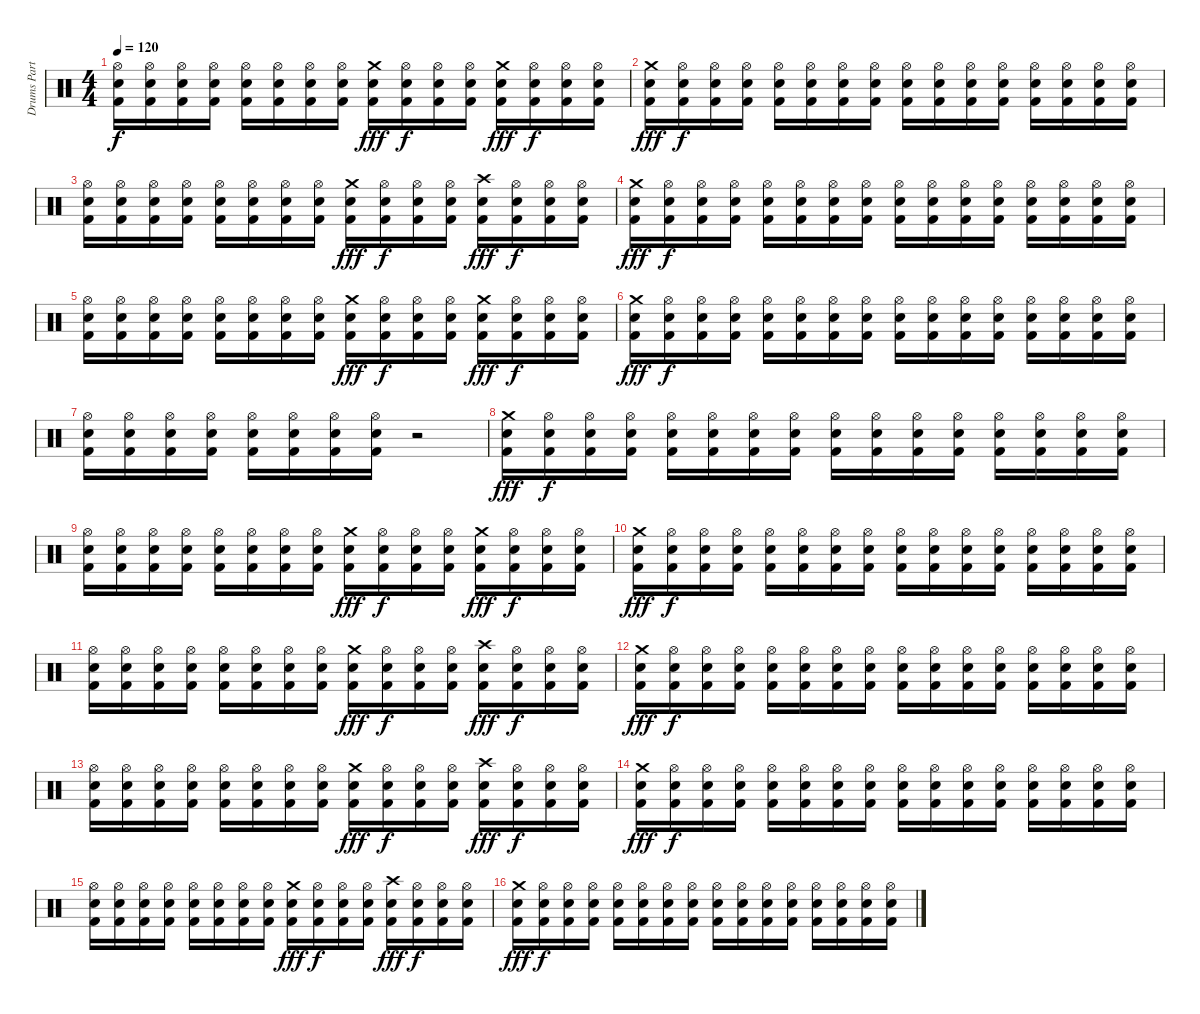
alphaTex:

\track ("Drums Part" "Drums Part") {instrument percussion}
\staff {score}
\articulation defaults
\ts (4 4)
\tempo 120
\clef neutral
\ks c
("Hi-Hat (open)" "Electric Snare (hit)" "Kick (hit) 2").16{dy f} ("Hi-Hat (open)" "Electric Snare (hit)" "Kick (hit) 2").16 ("Hi-Hat (open)" "Electric Snare (hit)" "Kick (hit) 2").16 ("Hi-Hat (open)" "Electric Snare (hit)" "Kick (hit) 2").16 ("Hi-Hat (open)" "Electric Snare (hit)" "Kick (hit) 2").16 ("Hi-Hat (open)" "Electric Snare (hit)" "Kick (hit) 2").16 ("Hi-Hat (open)" "Electric Snare (hit)" "Kick (hit) 2").16 ("Hi-Hat (open)" "Electric Snare (hit)" "Kick (hit) 2").16 ("Crash medium (hit)" "Electric Snare (hit)" "Kick (hit) 2").16{dy fff} ("Hi-Hat (open)" "Electric Snare (hit)" "Kick (hit) 2").16{dy f} ("Hi-Hat (open)" "Electric Snare (hit)" "Kick (hit) 2").16 ("Hi-Hat (open)" "Electric Snare (hit)" "Kick (hit) 2").16 ("Crash medium (hit)" "Electric Snare (hit)" "Kick (hit) 2").16{dy fff} ("Hi-Hat (open)" "Electric Snare (hit)" "Kick (hit) 2").16{dy f} ("Hi-Hat (open)" "Electric Snare (hit)" "Kick (hit) 2").16 ("Hi-Hat (open)" "Electric Snare (hit)" "Kick (hit) 2").16 |
("Crash medium (hit)" "Electric Snare (hit)" "Kick (hit) 2").16{dy fff} ("Hi-Hat (open)" "Electric Snare (hit)" "Kick (hit) 2").16{dy f} ("Hi-Hat (open)" "Electric Snare (hit)" "Kick (hit) 2").16 ("Hi-Hat (open)" "Electric Snare (hit)" "Kick (hit) 2").16 ("Hi-Hat (open)" "Electric Snare (hit)" "Kick (hit) 2").16 ("Hi-Hat (open)" "Electric Snare (hit)" "Kick (hit) 2").16 ("Hi-Hat (open)" "Electric Snare (hit)" "Kick (hit) 2").16 ("Hi-Hat (open)" "Electric Snare (hit)" "Kick (hit) 2").16 ("Hi-Hat (open)" "Electric Snare (hit)" "Kick (hit) 2").16 ("Hi-Hat (open)" "Electric Snare (hit)" "Kick (hit) 2").16 ("Hi-Hat (open)" "Electric Snare (hit)" "Kick (hit) 2").16 ("Hi-Hat (open)" "Electric Snare (hit)" "Kick (hit) 2").16 ("Hi-Hat (open)" "Electric Snare (hit)" "Kick (hit) 2").16 ("Hi-Hat (open)" "Electric Snare (hit)" "Kick (hit) 2").16 ("Hi-Hat (open)" "Electric Snare (hit)" "Kick (hit) 2").16 ("Hi-Hat (open)" "Electric Snare (hit)" "Kick (hit) 2").16 |
("Hi-Hat (open)" "Electric Snare (hit)" "Kick (hit) 2").16 ("Hi-Hat (open)" "Electric Snare (hit)" "Kick (hit) 2").16 ("Hi-Hat (open)" "Electric Snare (hit)" "Kick (hit) 2").16 ("Hi-Hat (open)" "Electric Snare (hit)" "Kick (hit) 2").16 ("Hi-Hat (open)" "Electric Snare (hit)" "Kick (hit) 2").16 ("Hi-Hat (open)" "Electric Snare (hit)" "Kick (hit) 2").16 ("Hi-Hat (open)" "Electric Snare (hit)" "Kick (hit) 2").16 ("Hi-Hat (open)" "Electric Snare (hit)" "Kick (hit) 2").16 ("Crash medium (hit)" "Electric Snare (hit)" "Kick (hit) 2").16{dy fff} ("Hi-Hat (open)" "Electric Snare (hit)" "Kick (hit) 2").16{dy f} ("Hi-Hat (open)" "Electric Snare (hit)" "Kick (hit) 2").16 ("Hi-Hat (open)" "Electric Snare (hit)" "Kick (hit) 2").16 ("Crash high (hit)" "Electric Snare (hit)" "Kick (hit) 2").16{dy fff} ("Hi-Hat (open)" "Electric Snare (hit)" "Kick (hit) 2").16{dy f} ("Hi-Hat (open)" "Electric Snare (hit)" "Kick (hit) 2").16 ("Hi-Hat (open)" "Electric Snare (hit)" "Kick (hit) 2").16 |
("Crash medium (hit)" "Electric Snare (hit)" "Kick (hit) 2").16{dy fff} ("Hi-Hat (open)" "Electric Snare (hit)" "Kick (hit) 2").16{dy f} ("Hi-Hat (open)" "Electric Snare (hit)" "Kick (hit) 2").16 ("Hi-Hat (open)" "Electric Snare (hit)" "Kick (hit) 2").16 ("Hi-Hat (open)" "Electric Snare (hit)" "Kick (hit) 2").16 ("Hi-Hat (open)" "Electric Snare (hit)" "Kick (hit) 2").16 ("Hi-Hat (open)" "Electric Snare (hit)" "Kick (hit) 2").16 ("Hi-Hat (open)" "Electric Snare (hit)" "Kick (hit) 2").16 ("Hi-Hat (open)" "Electric Snare (hit)" "Kick (hit) 2").16 ("Hi-Hat (open)" "Electric Snare (hit)" "Kick (hit) 2").16 ("Hi-Hat (open)" "Electric Snare (hit)" "Kick (hit) 2").16 ("Hi-Hat (open)" "Electric Snare (hit)" "Kick (hit) 2").16 ("Hi-Hat (open)" "Electric Snare (hit)" "Kick (hit) 2").16 ("Hi-Hat (open)" "Electric Snare (hit)" "Kick (hit) 2").16 ("Hi-Hat (open)" "Electric Snare (hit)" "Kick (hit) 2").16 ("Hi-Hat (open)" "Electric Snare (hit)" "Kick (hit) 2").16 |
("Hi-Hat (open)" "Electric Snare (hit)" "Kick (hit) 2").16 ("Hi-Hat (open)" "Electric Snare (hit)" "Kick (hit) 2").16 ("Hi-Hat (open)" "Electric Snare (hit)" "Kick (hit) 2").16 ("Hi-Hat (open)" "Electric Snare (hit)" "Kick (hit) 2").16 ("Hi-Hat (open)" "Electric Snare (hit)" "Kick (hit) 2").16 ("Hi-Hat (open)" "Electric Snare (hit)" "Kick (hit) 2").16 ("Hi-Hat (open)" "Electric Snare (hit)" "Kick (hit) 2").16 ("Hi-Hat (open)" "Electric Snare (hit)" "Kick (hit) 2").16 ("Crash medium (hit)" "Electric Snare (hit)" "Kick (hit) 2").16{dy fff} ("Hi-Hat (open)" "Electric Snare (hit)" "Kick (hit) 2").16{dy f} ("Hi-Hat (open)" "Electric Snare (hit)" "Kick (hit) 2").16 ("Hi-Hat (open)" "Electric Snare (hit)" "Kick (hit) 2").16 ("Crash medium (hit)" "Electric Snare (hit)" "Kick (hit) 2").16{dy fff} ("Hi-Hat (open)" "Electric Snare (hit)" "Kick (hit) 2").16{dy f} ("Hi-Hat (open)" "Electric Snare (hit)" "Kick (hit) 2").16 ("Hi-Hat (open)" "Electric Snare (hit)" "Kick (hit) 2").16 |
("Crash medium (hit)" "Electric Snare (hit)" "Kick (hit) 2").16{dy fff} ("Hi-Hat (open)" "Electric Snare (hit)" "Kick (hit) 2").16{dy f} ("Hi-Hat (open)" "Electric Snare (hit)" "Kick (hit) 2").16 ("Hi-Hat (open)" "Electric Snare (hit)" "Kick (hit) 2").16 ("Hi-Hat (open)" "Electric Snare (hit)" "Kick (hit) 2").16 ("Hi-Hat (open)" "Electric Snare (hit)" "Kick (hit) 2").16 ("Hi-Hat (open)" "Electric Snare (hit)" "Kick (hit) 2").16 ("Hi-Hat (open)" "Electric Snare (hit)" "Kick (hit) 2").16 ("Hi-Hat (open)" "Electric Snare (hit)" "Kick (hit) 2").16 ("Hi-Hat (open)" "Electric Snare (hit)" "Kick (hit) 2").16 ("Hi-Hat (open)" "Electric Snare (hit)" "Kick (hit) 2").16 ("Hi-Hat (open)" "Electric Snare (hit)" "Kick (hit) 2").16 ("Hi-Hat (open)" "Electric Snare (hit)" "Kick (hit) 2").16 ("Hi-Hat (open)" "Electric Snare (hit)" "Kick (hit) 2").16 ("Hi-Hat (open)" "Electric Snare (hit)" "Kick (hit) 2").16 ("Hi-Hat (open)" "Electric Snare (hit)" "Kick (hit) 2").16 |
("Hi-Hat (open)" "Electric Snare (hit)" "Kick (hit) 2").16 ("Hi-Hat (open)" "Electric Snare (hit)" "Kick (hit) 2").16 ("Hi-Hat (open)" "Electric Snare (hit)" "Kick (hit) 2").16 ("Hi-Hat (open)" "Electric Snare (hit)" "Kick (hit) 2").16 ("Hi-Hat (open)" "Electric Snare (hit)" "Kick (hit) 2").16 ("Hi-Hat (open)" "Electric Snare (hit)" "Kick (hit) 2").16 ("Hi-Hat (open)" "Electric Snare (hit)" "Kick (hit) 2").16 ("Hi-Hat (open)" "Electric Snare (hit)" "Kick (hit) 2").16 r.2 |
("Crash medium (hit)" "Electric Snare (hit)" "Kick (hit) 2").16{dy fff} ("Hi-Hat (open)" "Electric Snare (hit)" "Kick (hit) 2").16{dy f} ("Hi-Hat (open)" "Electric Snare (hit)" "Kick (hit) 2").16 ("Hi-Hat (open)" "Electric Snare (hit)" "Kick (hit) 2").16 ("Hi-Hat (open)" "Electric Snare (hit)" "Kick (hit) 2").16 ("Hi-Hat (open)" "Electric Snare (hit)" "Kick (hit) 2").16 ("Hi-Hat (open)" "Electric Snare (hit)" "Kick (hit) 2").16 ("Hi-Hat (open)" "Electric Snare (hit)" "Kick (hit) 2").16 ("Hi-Hat (open)" "Electric Snare (hit)" "Kick (hit) 2").16 ("Hi-Hat (open)" "Electric Snare (hit)" "Kick (hit) 2").16 ("Hi-Hat (open)" "Electric Snare (hit)" "Kick (hit) 2").16 ("Hi-Hat (open)" "Electric Snare (hit)" "Kick (hit) 2").16 ("Hi-Hat (open)" "Electric Snare (hit)" "Kick (hit) 2").16 ("Hi-Hat (open)" "Electric Snare (hit)" "Kick (hit) 2").16 ("Hi-Hat (open)" "Electric Snare (hit)" "Kick (hit) 2").16 ("Hi-Hat (open)" "Electric Snare (hit)" "Kick (hit) 2").16 |
("Hi-Hat (open)" "Electric Snare (hit)" "Kick (hit) 2").16 ("Hi-Hat (open)" "Electric Snare (hit)" "Kick (hit) 2").16 ("Hi-Hat (open)" "Electric Snare (hit)" "Kick (hit) 2").16 ("Hi-Hat (open)" "Electric Snare (hit)" "Kick (hit) 2").16 ("Hi-Hat (open)" "Electric Snare (hit)" "Kick (hit) 2").16 ("Hi-Hat (open)" "Electric Snare (hit)" "Kick (hit) 2").16 ("Hi-Hat (open)" "Electric Snare (hit)" "Kick (hit) 2").16 ("Hi-Hat (open)" "Electric Snare (hit)" "Kick (hit) 2").16 ("Crash medium (hit)" "Electric Snare (hit)" "Kick (hit) 2").16{dy fff} ("Hi-Hat (open)" "Electric Snare (hit)" "Kick (hit) 2").16{dy f} ("Hi-Hat (open)" "Electric Snare (hit)" "Kick (hit) 2").16 ("Hi-Hat (open)" "Electric Snare (hit)" "Kick (hit) 2").16 ("Crash medium (hit)" "Electric Snare (hit)" "Kick (hit) 2").16{dy fff} ("Hi-Hat (open)" "Electric Snare (hit)" "Kick (hit) 2").16{dy f} ("Hi-Hat (open)" "Electric Snare (hit)" "Kick (hit) 2").16 ("Hi-Hat (open)" "Electric Snare (hit)" "Kick (hit) 2").16 |
("Crash medium (hit)" "Electric Snare (hit)" "Kick (hit) 2").16{dy fff} ("Hi-Hat (open)" "Electric Snare (hit)" "Kick (hit) 2").16{dy f} ("Hi-Hat (open)" "Electric Snare (hit)" "Kick (hit) 2").16 ("Hi-Hat (open)" "Electric Snare (hit)" "Kick (hit) 2").16 ("Hi-Hat (open)" "Electric Snare (hit)" "Kick (hit) 2").16 ("Hi-Hat (open)" "Electric Snare (hit)" "Kick (hit) 2").16 ("Hi-Hat (open)" "Electric Snare (hit)" "Kick (hit) 2").16 ("Hi-Hat (open)" "Electric Snare (hit)" "Kick (hit) 2").16 ("Hi-Hat (open)" "Electric Snare (hit)" "Kick (hit) 2").16 ("Hi-Hat (open)" "Electric Snare (hit)" "Kick (hit) 2").16 ("Hi-Hat (open)" "Electric Snare (hit)" "Kick (hit) 2").16 ("Hi-Hat (open)" "Electric Snare (hit)" "Kick (hit) 2").16 ("Hi-Hat (open)" "Electric Snare (hit)" "Kick (hit) 2").16 ("Hi-Hat (open)" "Electric Snare (hit)" "Kick (hit) 2").16 ("Hi-Hat (open)" "Electric Snare (hit)" "Kick (hit) 2").16 ("Hi-Hat (open)" "Electric Snare (hit)" "Kick (hit) 2").16 |
("Hi-Hat (open)" "Electric Snare (hit)" "Kick (hit) 2").16 ("Hi-Hat (open)" "Electric Snare (hit)" "Kick (hit) 2").16 ("Hi-Hat (open)" "Electric Snare (hit)" "Kick (hit) 2").16 ("Hi-Hat (open)" "Electric Snare (hit)" "Kick (hit) 2").16 ("Hi-Hat (open)" "Electric Snare (hit)" "Kick (hit) 2").16 ("Hi-Hat (open)" "Electric Snare (hit)" "Kick (hit) 2").16 ("Hi-Hat (open)" "Electric Snare (hit)" "Kick (hit) 2").16 ("Hi-Hat (open)" "Electric Snare (hit)" "Kick (hit) 2").16 ("Crash medium (hit)" "Electric Snare (hit)" "Kick (hit) 2").16{dy fff} ("Hi-Hat (open)" "Electric Snare (hit)" "Kick (hit) 2").16{dy f} ("Hi-Hat (open)" "Electric Snare (hit)" "Kick (hit) 2").16 ("Hi-Hat (open)" "Electric Snare (hit)" "Kick (hit) 2").16 ("Crash high (hit)" "Electric Snare (hit)" "Kick (hit) 2").16{dy fff} ("Hi-Hat (open)" "Electric Snare (hit)" "Kick (hit) 2").16{dy f} ("Hi-Hat (open)" "Electric Snare (hit)" "Kick (hit) 2").16 ("Hi-Hat (open)" "Electric Snare (hit)" "Kick (hit) 2").16 |
("Crash medium (hit)" "Electric Snare (hit)" "Kick (hit) 2").16{dy fff} ("Hi-Hat (open)" "Electric Snare (hit)" "Kick (hit) 2").16{dy f} ("Hi-Hat (open)" "Electric Snare (hit)" "Kick (hit) 2").16 ("Hi-Hat (open)" "Electric Snare (hit)" "Kick (hit) 2").16 ("Hi-Hat (open)" "Electric Snare (hit)" "Kick (hit) 2").16 ("Hi-Hat (open)" "Electric Snare (hit)" "Kick (hit) 2").16 ("Hi-Hat (open)" "Electric Snare (hit)" "Kick (hit) 2").16 ("Hi-Hat (open)" "Electric Snare (hit)" "Kick (hit) 2").16 ("Hi-Hat (open)" "Electric Snare (hit)" "Kick (hit) 2").16 ("Hi-Hat (open)" "Electric Snare (hit)" "Kick (hit) 2").16 ("Hi-Hat (open)" "Electric Snare (hit)" "Kick (hit) 2").16 ("Hi-Hat (open)" "Electric Snare (hit)" "Kick (hit) 2").16 ("Hi-Hat (open)" "Electric Snare (hit)" "Kick (hit) 2").16 ("Hi-Hat (open)" "Electric Snare (hit)" "Kick (hit) 2").16 ("Hi-Hat (open)" "Electric Snare (hit)" "Kick (hit) 2").16 ("Hi-Hat (open)" "Electric Snare (hit)" "Kick (hit) 2").16 |
("Hi-Hat (open)" "Electric Snare (hit)" "Kick (hit) 2").16 ("Hi-Hat (open)" "Electric Snare (hit)" "Kick (hit) 2").16 ("Hi-Hat (open)" "Electric Snare (hit)" "Kick (hit) 2").16 ("Hi-Hat (open)" "Electric Snare (hit)" "Kick (hit) 2").16 ("Hi-Hat (open)" "Electric Snare (hit)" "Kick (hit) 2").16 ("Hi-Hat (open)" "Electric Snare (hit)" "Kick (hit) 2").16 ("Hi-Hat (open)" "Electric Snare (hit)" "Kick (hit) 2").16 ("Hi-Hat (open)" "Electric Snare (hit)" "Kick (hit) 2").16 ("Crash medium (hit)" "Electric Snare (hit)" "Kick (hit) 2").16{dy fff} ("Hi-Hat (open)" "Electric Snare (hit)" "Kick (hit) 2").16{dy f} ("Hi-Hat (open)" "Electric Snare (hit)" "Kick (hit) 2").16 ("Hi-Hat (open)" "Electric Snare (hit)" "Kick (hit) 2").16 ("Crash high (hit)" "Electric Snare (hit)" "Kick (hit) 2").16{dy fff} ("Hi-Hat (open)" "Electric Snare (hit)" "Kick (hit) 2").16{dy f} ("Hi-Hat (open)" "Electric Snare (hit)" "Kick (hit) 2").16 ("Hi-Hat (open)" "Electric Snare (hit)" "Kick (hit) 2").16 |
("Crash medium (hit)" "Electric Snare (hit)" "Kick (hit) 2").16{dy fff} ("Hi-Hat (open)" "Electric Snare (hit)" "Kick (hit) 2").16{dy f} ("Hi-Hat (open)" "Electric Snare (hit)" "Kick (hit) 2").16 ("Hi-Hat (open)" "Electric Snare (hit)" "Kick (hit) 2").16 ("Hi-Hat (open)" "Electric Snare (hit)" "Kick (hit) 2").16 ("Hi-Hat (open)" "Electric Snare (hit)" "Kick (hit) 2").16 ("Hi-Hat (open)" "Electric Snare (hit)" "Kick (hit) 2").16 ("Hi-Hat (open)" "Electric Snare (hit)" "Kick (hit) 2").16 ("Hi-Hat (open)" "Electric Snare (hit)" "Kick (hit) 2").16 ("Hi-Hat (open)" "Electric Snare (hit)" "Kick (hit) 2").16 ("Hi-Hat (open)" "Electric Snare (hit)" "Kick (hit) 2").16 ("Hi-Hat (open)" "Electric Snare (hit)" "Kick (hit) 2").16 ("Hi-Hat (open)" "Electric Snare (hit)" "Kick (hit) 2").16 ("Hi-Hat (open)" "Electric Snare (hit)" "Kick (hit) 2").16 ("Hi-Hat (open)" "Electric Snare (hit)" "Kick (hit) 2").16 ("Hi-Hat (open)" "Electric Snare (hit)" "Kick (hit) 2").16 |
("Hi-Hat (open)" "Electric Snare (hit)" "Kick (hit) 2").16 ("Hi-Hat (open)" "Electric Snare (hit)" "Kick (hit) 2").16 ("Hi-Hat (open)" "Electric Snare (hit)" "Kick (hit) 2").16 ("Hi-Hat (open)" "Electric Snare (hit)" "Kick (hit) 2").16 ("Hi-Hat (open)" "Electric Snare (hit)" "Kick (hit) 2").16 ("Hi-Hat (open)" "Electric Snare (hit)" "Kick (hit) 2").16 ("Hi-Hat (open)" "Electric Snare (hit)" "Kick (hit) 2").16 ("Hi-Hat (open)" "Electric Snare (hit)" "Kick (hit) 2").16 ("Crash medium (hit)" "Electric Snare (hit)" "Kick (hit) 2").16{dy fff} ("Hi-Hat (open)" "Electric Snare (hit)" "Kick (hit) 2").16{dy f} ("Hi-Hat (open)" "Electric Snare (hit)" "Kick (hit) 2").16 ("Hi-Hat (open)" "Electric Snare (hit)" "Kick (hit) 2").16 ("Crash high (hit)" "Electric Snare (hit)" "Kick (hit) 2").16{dy fff} ("Hi-Hat (open)" "Electric Snare (hit)" "Kick (hit) 2").16{dy f} ("Hi-Hat (open)" "Electric Snare (hit)" "Kick (hit) 2").16 ("Hi-Hat (open)" "Electric Snare (hit)" "Kick (hit) 2").16 |
("Crash medium (hit)" "Electric Snare (hit)" "Kick (hit) 2").16{dy fff} ("Hi-Hat (open)" "Electric Snare (hit)" "Kick (hit) 2").16{dy f} ("Hi-Hat (open)" "Electric Snare (hit)" "Kick (hit) 2").16 ("Hi-Hat (open)" "Electric Snare (hit)" "Kick (hit) 2").16 ("Hi-Hat (open)" "Electric Snare (hit)" "Kick (hit) 2").16 ("Hi-Hat (open)" "Electric Snare (hit)" "Kick (hit) 2").16 ("Hi-Hat (open)" "Electric Snare (hit)" "Kick (hit) 2").16 ("Hi-Hat (open)" "Electric Snare (hit)" "Kick (hit) 2").16 ("Hi-Hat (open)" "Electric Snare (hit)" "Kick (hit) 2").16 ("Hi-Hat (open)" "Electric Snare (hit)" "Kick (hit) 2").16 ("Hi-Hat (open)" "Electric Snare (hit)" "Kick (hit) 2").16 ("Hi-Hat (open)" "Electric Snare (hit)" "Kick (hit) 2").16 ("Hi-Hat (open)" "Electric Snare (hit)" "Kick (hit) 2").16 ("Hi-Hat (open)" "Electric Snare (hit)" "Kick (hit) 2").16 ("Hi-Hat (open)" "Electric Snare (hit)" "Kick (hit) 2").16 ("Hi-Hat (open)" "Electric Snare (hit)" "Kick (hit) 2").16
